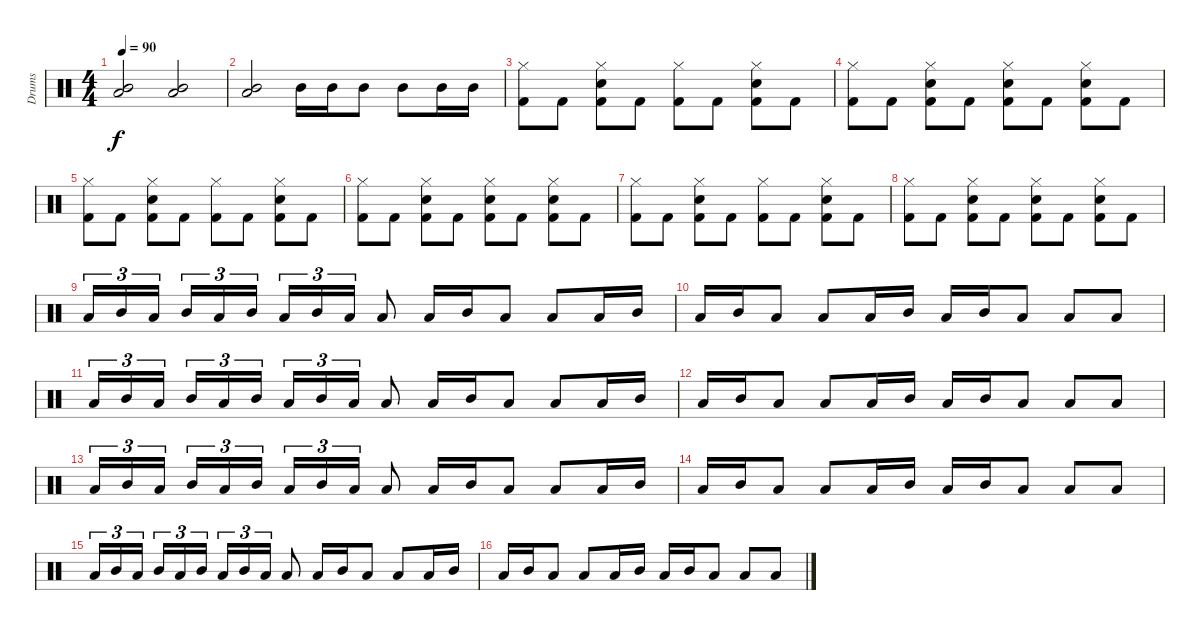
\track ("Drums" "Drums") {instrument percussion}
\staff {score}
\articulation defaults
\ts (4 4)
\tempo 90
\clef neutral
\ks c
("Mid Tom (hit)" "Low Tom (hit)").2{dy f} ("Mid Tom (hit)" "Low Tom (hit)").2 |
("Mid Tom (hit)" "Low Tom (hit)").2 "Mid Tom (hit)".16 "Mid Tom (hit)".16 "Mid Tom (hit)".8 "Mid Tom (hit)".8 "Mid Tom (hit)".16 "Mid Tom (hit)".16 |
("Hi-Hat (closed)" "Kick (hit) 2").8 "Kick (hit) 2".8 ("Hi-Hat (closed)" "Kick (hit) 2" "Snare (hit) 2").8 "Kick (hit) 2".8 ("Hi-Hat (closed)" "Kick (hit) 2").8 "Kick (hit) 2".8 ("Hi-Hat (closed)" "Kick (hit) 2" "Snare (hit) 2").8 "Kick (hit) 2".8 |
("Hi-Hat (closed)" "Kick (hit) 2").8 "Kick (hit) 2".8 ("Hi-Hat (closed)" "Kick (hit) 2" "Snare (hit) 2").8 "Kick (hit) 2".8 ("Hi-Hat (closed)" "Kick (hit) 2" "Snare (hit) 2").8 "Kick (hit) 2".8 ("Hi-Hat (closed)" "Kick (hit) 2" "Snare (hit) 2").8 "Kick (hit) 2".8 |
("Hi-Hat (closed)" "Kick (hit) 2").8 "Kick (hit) 2".8 ("Hi-Hat (closed)" "Kick (hit) 2" "Snare (hit) 2").8 "Kick (hit) 2".8 ("Hi-Hat (closed)" "Kick (hit) 2").8 "Kick (hit) 2".8 ("Hi-Hat (closed)" "Kick (hit) 2" "Snare (hit) 2").8 "Kick (hit) 2".8 |
("Hi-Hat (closed)" "Kick (hit) 2").8 "Kick (hit) 2".8 ("Hi-Hat (closed)" "Kick (hit) 2" "Snare (hit) 2").8 "Kick (hit) 2".8 ("Hi-Hat (closed)" "Kick (hit) 2" "Snare (hit) 2").8 "Kick (hit) 2".8 ("Hi-Hat (closed)" "Kick (hit) 2" "Snare (hit) 2").8 "Kick (hit) 2".8 |
("Hi-Hat (closed)" "Kick (hit) 2").8 "Kick (hit) 2".8 ("Hi-Hat (closed)" "Kick (hit) 2" "Snare (hit) 2").8 "Kick (hit) 2".8 ("Hi-Hat (closed)" "Kick (hit) 2").8 "Kick (hit) 2".8 ("Hi-Hat (closed)" "Kick (hit) 2" "Snare (hit) 2").8 "Kick (hit) 2".8 |
("Hi-Hat (closed)" "Kick (hit) 2").8 "Kick (hit) 2".8 ("Hi-Hat (closed)" "Kick (hit) 2" "Snare (hit) 2").8 "Kick (hit) 2".8 ("Hi-Hat (closed)" "Kick (hit) 2" "Snare (hit) 2").8 "Kick (hit) 2".8 ("Hi-Hat (closed)" "Kick (hit) 2" "Snare (hit) 2").8 "Kick (hit) 2".8 |
"Low Tom (hit)".16{tu (3 2)} "Mid Tom (hit)".16{tu (3 2)} "Low Tom (hit)".16{tu (3 2) beam splitsecondary} "Mid Tom (hit)".16{tu (3 2)} "Low Tom (hit)".16{tu (3 2)} "Mid Tom (hit)".16{tu (3 2)} "Low Tom (hit)".16{tu (3 2)} "Mid Tom (hit)".16{tu (3 2)} "Low Tom (hit)".16{tu (3 2)} "Low Tom (hit)".8 "Low Tom (hit)".16 "Mid Tom (hit)".16 "Low Tom (hit)".8 "Low Tom (hit)".8 "Low Tom (hit)".16 "Mid Tom (hit)".16 |
"Low Tom (hit)".16 "Mid Tom (hit)".16 "Low Tom (hit)".8 "Low Tom (hit)".8 "Low Tom (hit)".16 "Mid Tom (hit)".16 "Low Tom (hit)".16 "Mid Tom (hit)".16 "Low Tom (hit)".8 "Low Tom (hit)".8 "Low Tom (hit)".8 |
"Low Tom (hit)".16{tu (3 2)} "Mid Tom (hit)".16{tu (3 2)} "Low Tom (hit)".16{tu (3 2) beam splitsecondary} "Mid Tom (hit)".16{tu (3 2)} "Low Tom (hit)".16{tu (3 2)} "Mid Tom (hit)".16{tu (3 2)} "Low Tom (hit)".16{tu (3 2)} "Mid Tom (hit)".16{tu (3 2)} "Low Tom (hit)".16{tu (3 2)} "Low Tom (hit)".8 "Low Tom (hit)".16 "Mid Tom (hit)".16 "Low Tom (hit)".8 "Low Tom (hit)".8 "Low Tom (hit)".16 "Mid Tom (hit)".16 |
"Low Tom (hit)".16 "Mid Tom (hit)".16 "Low Tom (hit)".8 "Low Tom (hit)".8 "Low Tom (hit)".16 "Mid Tom (hit)".16 "Low Tom (hit)".16 "Mid Tom (hit)".16 "Low Tom (hit)".8 "Low Tom (hit)".8 "Low Tom (hit)".8 |
"Low Tom (hit)".16{tu (3 2)} "Mid Tom (hit)".16{tu (3 2)} "Low Tom (hit)".16{tu (3 2) beam splitsecondary} "Mid Tom (hit)".16{tu (3 2)} "Low Tom (hit)".16{tu (3 2)} "Mid Tom (hit)".16{tu (3 2)} "Low Tom (hit)".16{tu (3 2)} "Mid Tom (hit)".16{tu (3 2)} "Low Tom (hit)".16{tu (3 2)} "Low Tom (hit)".8 "Low Tom (hit)".16 "Mid Tom (hit)".16 "Low Tom (hit)".8 "Low Tom (hit)".8 "Low Tom (hit)".16 "Mid Tom (hit)".16 |
"Low Tom (hit)".16 "Mid Tom (hit)".16 "Low Tom (hit)".8 "Low Tom (hit)".8 "Low Tom (hit)".16 "Mid Tom (hit)".16 "Low Tom (hit)".16 "Mid Tom (hit)".16 "Low Tom (hit)".8 "Low Tom (hit)".8 "Low Tom (hit)".8 |
"Low Tom (hit)".16{tu (3 2)} "Mid Tom (hit)".16{tu (3 2)} "Low Tom (hit)".16{tu (3 2) beam splitsecondary} "Mid Tom (hit)".16{tu (3 2)} "Low Tom (hit)".16{tu (3 2)} "Mid Tom (hit)".16{tu (3 2)} "Low Tom (hit)".16{tu (3 2)} "Mid Tom (hit)".16{tu (3 2)} "Low Tom (hit)".16{tu (3 2)} "Low Tom (hit)".8 "Low Tom (hit)".16 "Mid Tom (hit)".16 "Low Tom (hit)".8 "Low Tom (hit)".8 "Low Tom (hit)".16 "Mid Tom (hit)".16 |
"Low Tom (hit)".16 "Mid Tom (hit)".16 "Low Tom (hit)".8 "Low Tom (hit)".8 "Low Tom (hit)".16 "Mid Tom (hit)".16 "Low Tom (hit)".16 "Mid Tom (hit)".16 "Low Tom (hit)".8 "Low Tom (hit)".8 "Low Tom (hit)".8
